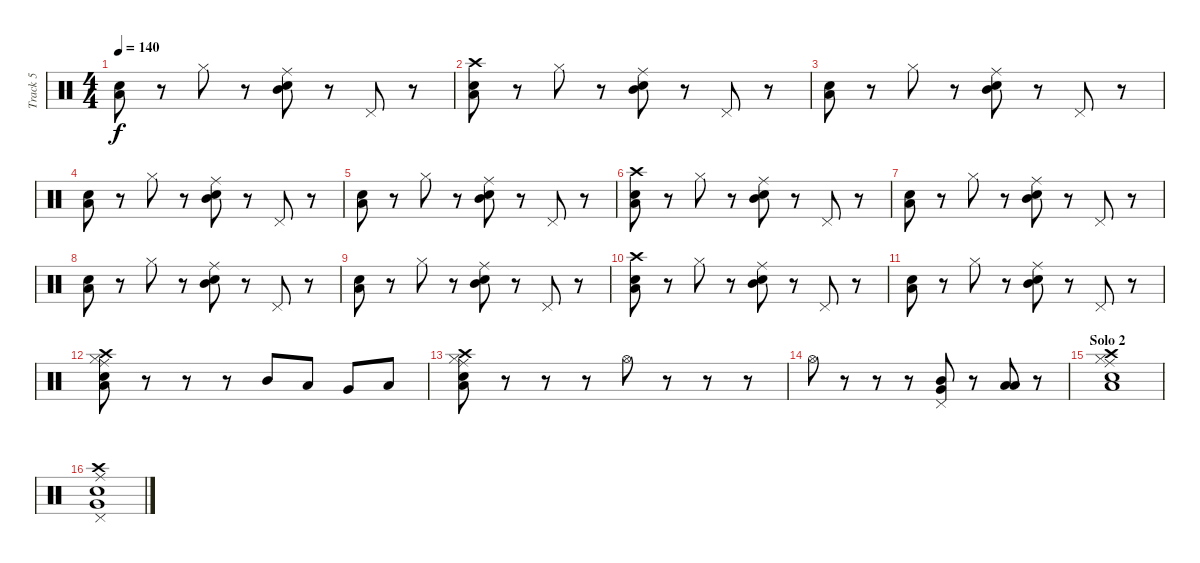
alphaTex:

\track ("Track 5" "Track 5") {instrument percussion}
\staff {score}
\articulation defaults
\ts (4 4)
\tempo 140
\clef neutral
\ks c
("Low Tom (hit)" "Snare (hit) 2").8{dy f} r.8 "Hi-Hat (closed)".8 r.8 ("Mid Tom (hit)" "Electric Snare (hit)" "Ride (middle)").8 r.8 "Pedal Hi-Hat (hit)".8 r.8 |
("Low Tom (hit)" "Snare (hit) 2" "Crash high (hit)").8 r.8 "Hi-Hat (closed)".8 r.8 ("Mid Tom (hit)" "Electric Snare (hit)" "Ride (middle)").8 r.8 "Pedal Hi-Hat (hit)".8 r.8 |
("Low Tom (hit)" "Snare (hit) 2").8 r.8 "Hi-Hat (closed)".8 r.8 ("Mid Tom (hit)" "Electric Snare (hit)" "Ride (middle)").8 r.8 "Pedal Hi-Hat (hit)".8 r.8 |
("Low Tom (hit)" "Snare (hit) 2").8 r.8 "Hi-Hat (closed)".8 r.8 ("Mid Tom (hit)" "Electric Snare (hit)" "Ride (middle)").8 r.8 "Pedal Hi-Hat (hit)".8 r.8 |
("Low Tom (hit)" "Snare (hit) 2").8 r.8 "Hi-Hat (closed)".8 r.8 ("Mid Tom (hit)" "Electric Snare (hit)" "Ride (middle)").8 r.8 "Pedal Hi-Hat (hit)".8 r.8 |
("Low Tom (hit)" "Snare (hit) 2" "Crash high (hit)").8 r.8 "Hi-Hat (closed)".8 r.8 ("Mid Tom (hit)" "Electric Snare (hit)" "Ride (middle)").8 r.8 "Pedal Hi-Hat (hit)".8 r.8 |
("Low Tom (hit)" "Snare (hit) 2").8 r.8 "Hi-Hat (closed)".8 r.8 ("Mid Tom (hit)" "Electric Snare (hit)" "Ride (middle)").8 r.8 "Pedal Hi-Hat (hit)".8 r.8 |
("Low Tom (hit)" "Snare (hit) 2").8 r.8 "Hi-Hat (closed)".8 r.8 ("Mid Tom (hit)" "Electric Snare (hit)" "Ride (middle)").8 r.8 "Pedal Hi-Hat (hit)".8 r.8 |
("Low Tom (hit)" "Snare (hit) 2").8 r.8 "Hi-Hat (closed)".8 r.8 ("Mid Tom (hit)" "Electric Snare (hit)" "Ride (middle)").8 r.8 "Pedal Hi-Hat (hit)".8 r.8 |
("Low Tom (hit)" "Snare (hit) 2" "Crash high (hit)").8 r.8 "Hi-Hat (closed)".8 r.8 ("Mid Tom (hit)" "Electric Snare (hit)" "Ride (middle)").8 r.8 "Pedal Hi-Hat (hit)".8 r.8 |
("Low Tom (hit)" "Snare (hit) 2").8 r.8 "Hi-Hat (closed)".8 r.8 ("Mid Tom (hit)" "Electric Snare (hit)" "Ride (middle)").8 r.8 "Pedal Hi-Hat (hit)".8 r.8 |
("Low Tom (hit)" "Hi-Hat (closed)" "Ride (middle)" "Snare (hit) 2" "Crash high (hit)").8 r.8 r.8 r.8 "Mid Tom (hit)".8 "Low Tom (hit)".8 "Very Low Tom (hit)".8 "Low Floor Tom (hit)".8 |
("Low Tom (hit)" "Hi-Hat (closed)" "Ride (middle)" "Snare (hit) 2" "Crash high (hit)").8 r.8 r.8 r.8 "Hi-Hat (open)".8 r.8 r.8 r.8 |
"Hi-Hat (open)".8 r.8 r.8 r.8 ("Mid Tom (hit)" "Very Low Tom (hit)" "Pedal Hi-Hat (hit)").8 r.8 ("Low Tom (hit)" "Low Floor Tom (hit)").8 r.8 |
\section ("" "Solo 2")
("Low Tom (hit)" "Hi-Hat (closed)" "Ride (middle)" "Snare (hit) 2" "Crash high (hit)").1 |
("Very Low Tom (hit)" "Pedal Hi-Hat (hit)" "Crash high (hit)" "Electric Snare (hit)" "Ride (middle)").1
